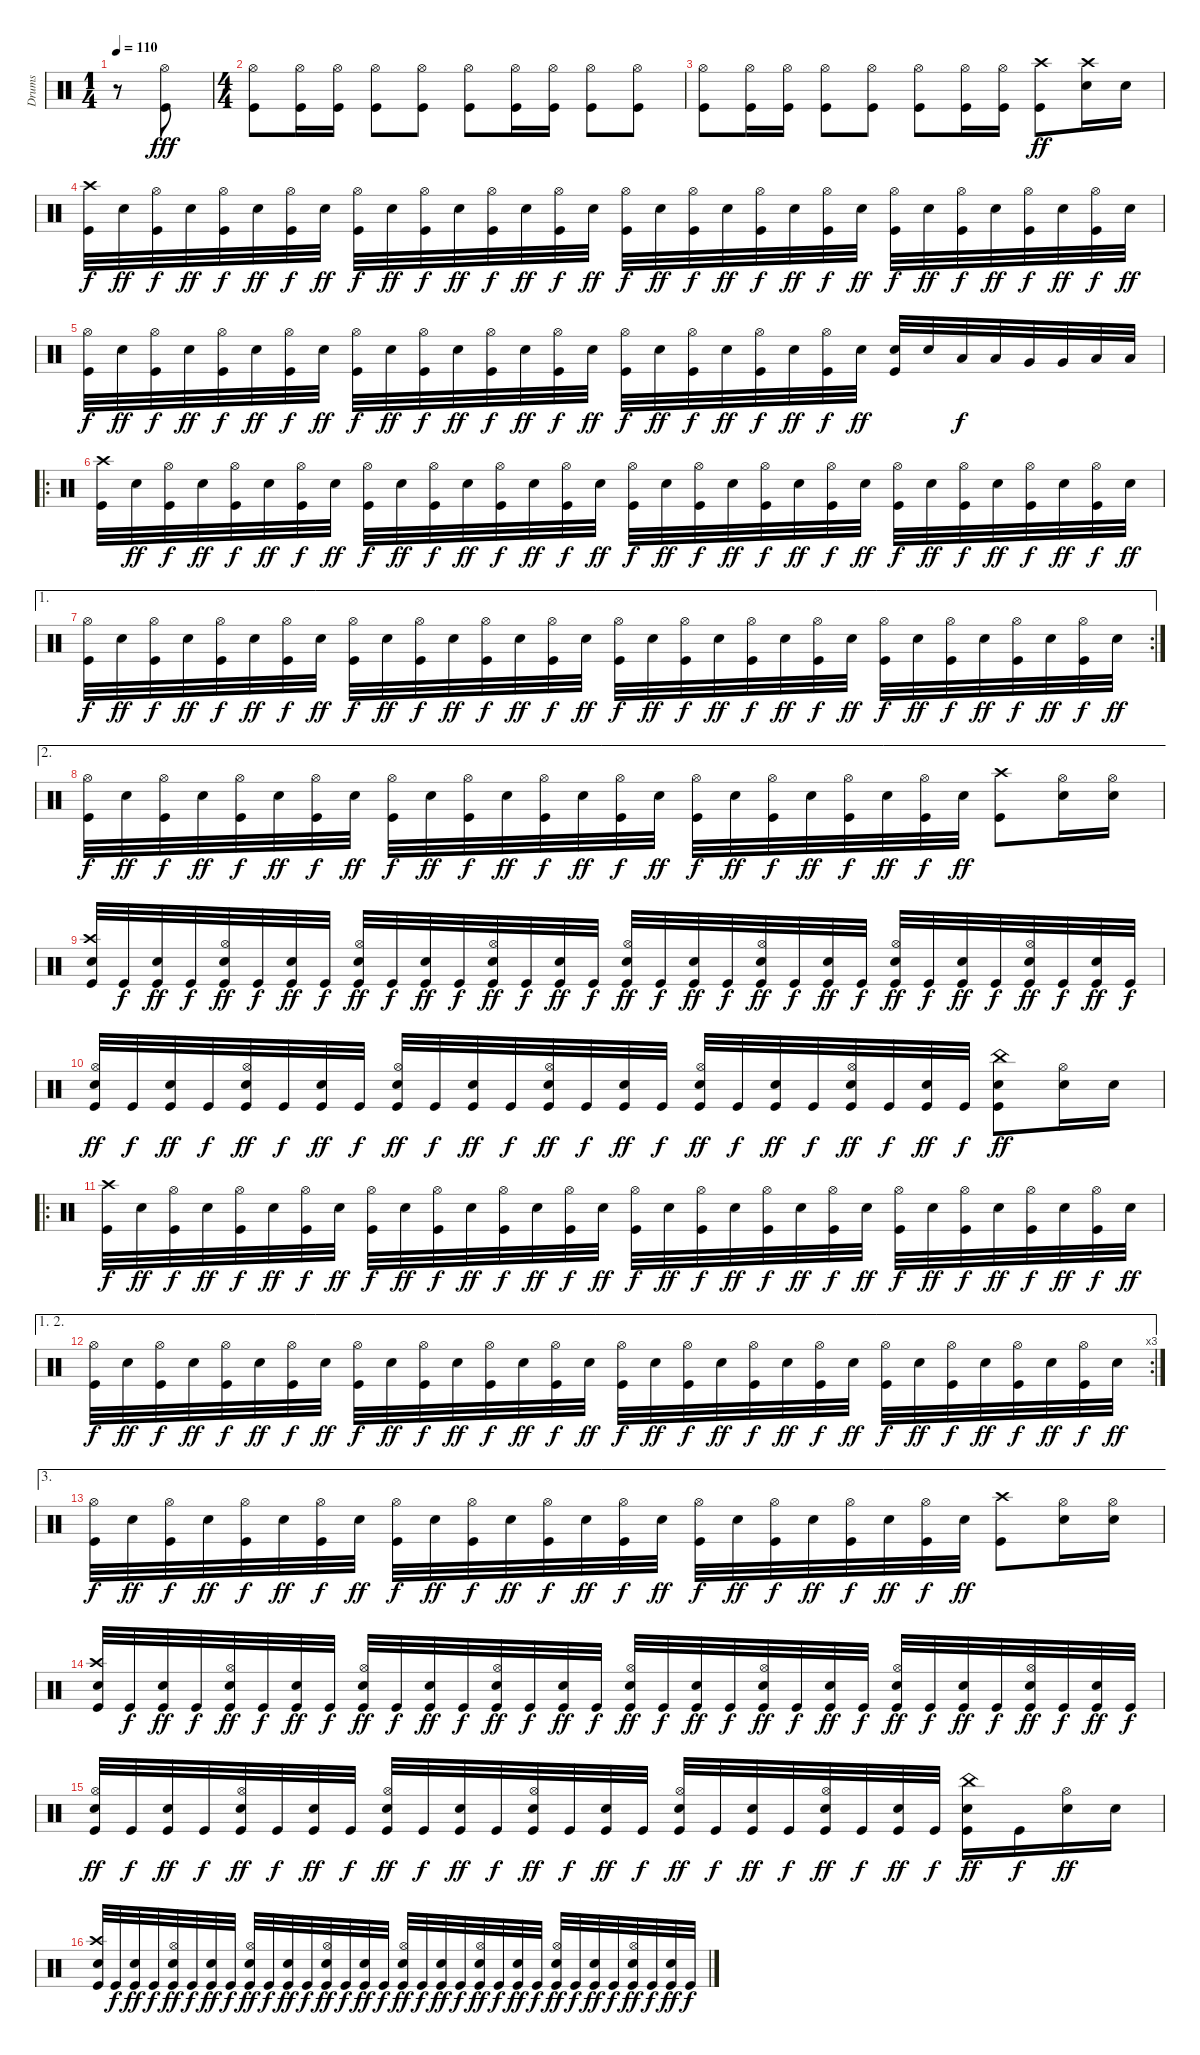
\track ("Drums" "Drums") {instrument percussion}
\staff {score}
\articulation defaults
\ts (1 4)
\tempo 110
\clef neutral
\ks c
r.8{dy fff} ("Kick (hit)" "Hi-Hat (open)").8 |
\ts (4 4)
("Kick (hit)" "Hi-Hat (open)").8 ("Kick (hit)" "Hi-Hat (open)").16 ("Kick (hit)" "Hi-Hat (open)").16 ("Kick (hit)" "Hi-Hat (open)").8 ("Kick (hit)" "Hi-Hat (open)").8 ("Kick (hit)" "Hi-Hat (open)").8 ("Kick (hit)" "Hi-Hat (open)").16 ("Kick (hit)" "Hi-Hat (open)").16 ("Kick (hit)" "Hi-Hat (open)").8 ("Kick (hit)" "Hi-Hat (open)").8 |
("Kick (hit)" "Hi-Hat (open)").8 ("Kick (hit)" "Hi-Hat (open)").16 ("Kick (hit)" "Hi-Hat (open)").16 ("Kick (hit)" "Hi-Hat (open)").8 ("Kick (hit)" "Hi-Hat (open)").8 ("Kick (hit)" "Hi-Hat (open)").8 ("Kick (hit)" "Hi-Hat (open)").16 ("Kick (hit)" "Hi-Hat (open)").16 ("Kick (hit)" "Crash high (hit)").8{dy ff} ("Electric Snare (hit)" "Crash high (hit)").16 "Electric Snare (hit)".16 |
("Kick (hit)" "Crash high (hit)").32{dy f} "Electric Snare (hit)".32{dy ff} ("Kick (hit)" "Hi-Hat (open)").32{dy f} "Electric Snare (hit)".32{dy ff} ("Kick (hit)" "Hi-Hat (open)").32{dy f} "Electric Snare (hit)".32{dy ff} ("Kick (hit)" "Hi-Hat (open)").32{dy f} "Electric Snare (hit)".32{dy ff} ("Kick (hit)" "Hi-Hat (open)").32{dy f} "Electric Snare (hit)".32{dy ff} ("Kick (hit)" "Hi-Hat (open)").32{dy f} "Electric Snare (hit)".32{dy ff} ("Kick (hit)" "Hi-Hat (open)").32{dy f} "Electric Snare (hit)".32{dy ff} ("Kick (hit)" "Hi-Hat (open)").32{dy f} "Electric Snare (hit)".32{dy ff} ("Kick (hit)" "Hi-Hat (open)").32{dy f} "Electric Snare (hit)".32{dy ff} ("Kick (hit)" "Hi-Hat (open)").32{dy f} "Electric Snare (hit)".32{dy ff} ("Kick (hit)" "Hi-Hat (open)").32{dy f} "Electric Snare (hit)".32{dy ff} ("Kick (hit)" "Hi-Hat (open)").32{dy f} "Electric Snare (hit)".32{dy ff} ("Kick (hit)" "Hi-Hat (open)").32{dy f} "Electric Snare (hit)".32{dy ff} ("Kick (hit)" "Hi-Hat (open)").32{dy f} "Electric Snare (hit)".32{dy ff} ("Kick (hit)" "Hi-Hat (open)").32{dy f} "Electric Snare (hit)".32{dy ff} ("Kick (hit)" "Hi-Hat (open)").32{dy f} "Electric Snare (hit)".32{dy ff} |
("Kick (hit)" "Hi-Hat (open)").32{dy f} "Electric Snare (hit)".32{dy ff} ("Kick (hit)" "Hi-Hat (open)").32{dy f} "Electric Snare (hit)".32{dy ff} ("Kick (hit)" "Hi-Hat (open)").32{dy f} "Electric Snare (hit)".32{dy ff} ("Kick (hit)" "Hi-Hat (open)").32{dy f} "Electric Snare (hit)".32{dy ff} ("Kick (hit)" "Hi-Hat (open)").32{dy f} "Electric Snare (hit)".32{dy ff} ("Kick (hit)" "Hi-Hat (open)").32{dy f} "Electric Snare (hit)".32{dy ff} ("Kick (hit)" "Hi-Hat (open)").32{dy f} "Electric Snare (hit)".32{dy ff} ("Kick (hit)" "Hi-Hat (open)").32{dy f} "Electric Snare (hit)".32{dy ff} ("Kick (hit)" "Hi-Hat (open)").32{dy f} "Electric Snare (hit)".32{dy ff} ("Kick (hit)" "Hi-Hat (open)").32{dy f} "Electric Snare (hit)".32{dy ff} ("Kick (hit)" "Hi-Hat (open)").32{dy f} "Electric Snare (hit)".32{dy ff} ("Kick (hit)" "Hi-Hat (open)").32{dy f} "Electric Snare (hit)".32{dy ff} ("Kick (hit)" "Electric Snare (hit)").32 "Electric Snare (hit)".32 "Low Tom (hit)".32{dy f} "Low Tom (hit)".32 "Very Low Tom (hit)".32 "Very Low Tom (hit)".32 "Low Floor Tom (hit)".32 "Low Floor Tom (hit)".32 |
\ro
("Kick (hit)" "Crash high (hit)").32 "Electric Snare (hit)".32{dy ff} ("Kick (hit)" "Hi-Hat (open)").32{dy f} "Electric Snare (hit)".32{dy ff} ("Kick (hit)" "Hi-Hat (open)").32{dy f} "Electric Snare (hit)".32{dy ff} ("Kick (hit)" "Hi-Hat (open)").32{dy f} "Electric Snare (hit)".32{dy ff} ("Kick (hit)" "Hi-Hat (open)").32{dy f} "Electric Snare (hit)".32{dy ff} ("Kick (hit)" "Hi-Hat (open)").32{dy f} "Electric Snare (hit)".32{dy ff} ("Kick (hit)" "Hi-Hat (open)").32{dy f} "Electric Snare (hit)".32{dy ff} ("Kick (hit)" "Hi-Hat (open)").32{dy f} "Electric Snare (hit)".32{dy ff} ("Kick (hit)" "Hi-Hat (open)").32{dy f} "Electric Snare (hit)".32{dy ff} ("Kick (hit)" "Hi-Hat (open)").32{dy f} "Electric Snare (hit)".32{dy ff} ("Kick (hit)" "Hi-Hat (open)").32{dy f} "Electric Snare (hit)".32{dy ff} ("Kick (hit)" "Hi-Hat (open)").32{dy f} "Electric Snare (hit)".32{dy ff} ("Kick (hit)" "Hi-Hat (open)").32{dy f} "Electric Snare (hit)".32{dy ff} ("Kick (hit)" "Hi-Hat (open)").32{dy f} "Electric Snare (hit)".32{dy ff} ("Kick (hit)" "Hi-Hat (open)").32{dy f} "Electric Snare (hit)".32{dy ff} ("Kick (hit)" "Hi-Hat (open)").32{dy f} "Electric Snare (hit)".32{dy ff} |
\ae 1
\rc 2
("Kick (hit)" "Hi-Hat (open)").32{dy f} "Electric Snare (hit)".32{dy ff} ("Kick (hit)" "Hi-Hat (open)").32{dy f} "Electric Snare (hit)".32{dy ff} ("Kick (hit)" "Hi-Hat (open)").32{dy f} "Electric Snare (hit)".32{dy ff} ("Kick (hit)" "Hi-Hat (open)").32{dy f} "Electric Snare (hit)".32{dy ff} ("Kick (hit)" "Hi-Hat (open)").32{dy f} "Electric Snare (hit)".32{dy ff} ("Kick (hit)" "Hi-Hat (open)").32{dy f} "Electric Snare (hit)".32{dy ff} ("Kick (hit)" "Hi-Hat (open)").32{dy f} "Electric Snare (hit)".32{dy ff} ("Kick (hit)" "Hi-Hat (open)").32{dy f} "Electric Snare (hit)".32{dy ff} ("Kick (hit)" "Hi-Hat (open)").32{dy f} "Electric Snare (hit)".32{dy ff} ("Kick (hit)" "Hi-Hat (open)").32{dy f} "Electric Snare (hit)".32{dy ff} ("Kick (hit)" "Hi-Hat (open)").32{dy f} "Electric Snare (hit)".32{dy ff} ("Kick (hit)" "Hi-Hat (open)").32{dy f} "Electric Snare (hit)".32{dy ff} ("Kick (hit)" "Hi-Hat (open)").32{dy f} "Electric Snare (hit)".32{dy ff} ("Kick (hit)" "Hi-Hat (open)").32{dy f} "Electric Snare (hit)".32{dy ff} ("Kick (hit)" "Hi-Hat (open)").32{dy f} "Electric Snare (hit)".32{dy ff} ("Kick (hit)" "Hi-Hat (open)").32{dy f} "Electric Snare (hit)".32{dy ff} |
\ae 2
("Kick (hit)" "Hi-Hat (open)").32{dy f} "Electric Snare (hit)".32{dy ff} ("Kick (hit)" "Hi-Hat (open)").32{dy f} "Electric Snare (hit)".32{dy ff} ("Kick (hit)" "Hi-Hat (open)").32{dy f} "Electric Snare (hit)".32{dy ff} ("Kick (hit)" "Hi-Hat (open)").32{dy f} "Electric Snare (hit)".32{dy ff} ("Kick (hit)" "Hi-Hat (open)").32{dy f} "Electric Snare (hit)".32{dy ff} ("Kick (hit)" "Hi-Hat (open)").32{dy f} "Electric Snare (hit)".32{dy ff} ("Kick (hit)" "Hi-Hat (open)").32{dy f} "Electric Snare (hit)".32{dy ff} ("Kick (hit)" "Hi-Hat (open)").32{dy f} "Electric Snare (hit)".32{dy ff} ("Kick (hit)" "Hi-Hat (open)").32{dy f} "Electric Snare (hit)".32{dy ff} ("Kick (hit)" "Hi-Hat (open)").32{dy f} "Electric Snare (hit)".32{dy ff} ("Kick (hit)" "Hi-Hat (open)").32{dy f} "Electric Snare (hit)".32{dy ff} ("Kick (hit)" "Hi-Hat (open)").32{dy f} "Electric Snare (hit)".32{dy ff} ("Kick (hit)" "Crash high (hit)").8 ("Electric Snare (hit)" "Hi-Hat (open)").16 ("Electric Snare (hit)" "Hi-Hat (open)").16 |
("Kick (hit)" "Electric Snare (hit)" "Crash high (hit)").32 "Kick (hit)".32{dy f} ("Kick (hit)" "Electric Snare (hit)").32{dy ff} "Kick (hit)".32{dy f} ("Kick (hit)" "Electric Snare (hit)" "Hi-Hat (open)").32{dy ff} "Kick (hit)".32{dy f} ("Kick (hit)" "Electric Snare (hit)").32{dy ff} "Kick (hit)".32{dy f} ("Kick (hit)" "Electric Snare (hit)" "Hi-Hat (open)").32{dy ff} "Kick (hit)".32{dy f} ("Kick (hit)" "Electric Snare (hit)").32{dy ff} "Kick (hit)".32{dy f} ("Kick (hit)" "Electric Snare (hit)" "Hi-Hat (open)").32{dy ff} "Kick (hit)".32{dy f} ("Kick (hit)" "Electric Snare (hit)").32{dy ff} "Kick (hit)".32{dy f} ("Kick (hit)" "Electric Snare (hit)" "Hi-Hat (open)").32{dy ff} "Kick (hit)".32{dy f} ("Kick (hit)" "Electric Snare (hit)").32{dy ff} "Kick (hit)".32{dy f} ("Kick (hit)" "Electric Snare (hit)" "Hi-Hat (open)").32{dy ff} "Kick (hit)".32{dy f} ("Kick (hit)" "Electric Snare (hit)").32{dy ff} "Kick (hit)".32{dy f} ("Kick (hit)" "Electric Snare (hit)" "Hi-Hat (open)").32{dy ff} "Kick (hit)".32{dy f} ("Kick (hit)" "Electric Snare (hit)").32{dy ff} "Kick (hit)".32{dy f} ("Kick (hit)" "Electric Snare (hit)" "Hi-Hat (open)").32{dy ff} "Kick (hit)".32{dy f} ("Kick (hit)" "Electric Snare (hit)").32{dy ff} "Kick (hit)".32{dy f} |
("Kick (hit)" "Electric Snare (hit)" "Hi-Hat (open)").32{dy ff} "Kick (hit)".32{dy f} ("Kick (hit)" "Electric Snare (hit)").32{dy ff} "Kick (hit)".32{dy f} ("Kick (hit)" "Electric Snare (hit)" "Hi-Hat (open)").32{dy ff} "Kick (hit)".32{dy f} ("Kick (hit)" "Electric Snare (hit)").32{dy ff} "Kick (hit)".32{dy f} ("Kick (hit)" "Electric Snare (hit)" "Hi-Hat (open)").32{dy ff} "Kick (hit)".32{dy f} ("Kick (hit)" "Electric Snare (hit)").32{dy ff} "Kick (hit)".32{dy f} ("Kick (hit)" "Electric Snare (hit)" "Hi-Hat (open)").32{dy ff} "Kick (hit)".32{dy f} ("Kick (hit)" "Electric Snare (hit)").32{dy ff} "Kick (hit)".32{dy f} ("Kick (hit)" "Electric Snare (hit)" "Hi-Hat (open)").32{dy ff} "Kick (hit)".32{dy f} ("Kick (hit)" "Electric Snare (hit)").32{dy ff} "Kick (hit)".32{dy f} ("Kick (hit)" "Electric Snare (hit)" "Hi-Hat (open)").32{dy ff} "Kick (hit)".32{dy f} ("Kick (hit)" "Electric Snare (hit)").32{dy ff} "Kick (hit)".32{dy f} ("Kick (hit)" "Electric Snare (hit)" "China (hit)").8{dy ff} ("Electric Snare (hit)" "Hi-Hat (open)").16 "Electric Snare (hit)".16 |
\ro
("Kick (hit)" "Crash high (hit)").32{dy f} "Electric Snare (hit)".32{dy ff} ("Kick (hit)" "Hi-Hat (open)").32{dy f} "Electric Snare (hit)".32{dy ff} ("Kick (hit)" "Hi-Hat (open)").32{dy f} "Electric Snare (hit)".32{dy ff} ("Kick (hit)" "Hi-Hat (open)").32{dy f} "Electric Snare (hit)".32{dy ff} ("Kick (hit)" "Hi-Hat (open)").32{dy f} "Electric Snare (hit)".32{dy ff} ("Kick (hit)" "Hi-Hat (open)").32{dy f} "Electric Snare (hit)".32{dy ff} ("Kick (hit)" "Hi-Hat (open)").32{dy f} "Electric Snare (hit)".32{dy ff} ("Kick (hit)" "Hi-Hat (open)").32{dy f} "Electric Snare (hit)".32{dy ff} ("Kick (hit)" "Hi-Hat (open)").32{dy f} "Electric Snare (hit)".32{dy ff} ("Kick (hit)" "Hi-Hat (open)").32{dy f} "Electric Snare (hit)".32{dy ff} ("Kick (hit)" "Hi-Hat (open)").32{dy f} "Electric Snare (hit)".32{dy ff} ("Kick (hit)" "Hi-Hat (open)").32{dy f} "Electric Snare (hit)".32{dy ff} ("Kick (hit)" "Hi-Hat (open)").32{dy f} "Electric Snare (hit)".32{dy ff} ("Kick (hit)" "Hi-Hat (open)").32{dy f} "Electric Snare (hit)".32{dy ff} ("Kick (hit)" "Hi-Hat (open)").32{dy f} "Electric Snare (hit)".32{dy ff} ("Kick (hit)" "Hi-Hat (open)").32{dy f} "Electric Snare (hit)".32{dy ff} |
\ae (1 2)
\rc 3
("Kick (hit)" "Hi-Hat (open)").32{dy f} "Electric Snare (hit)".32{dy ff} ("Kick (hit)" "Hi-Hat (open)").32{dy f} "Electric Snare (hit)".32{dy ff} ("Kick (hit)" "Hi-Hat (open)").32{dy f} "Electric Snare (hit)".32{dy ff} ("Kick (hit)" "Hi-Hat (open)").32{dy f} "Electric Snare (hit)".32{dy ff} ("Kick (hit)" "Hi-Hat (open)").32{dy f} "Electric Snare (hit)".32{dy ff} ("Kick (hit)" "Hi-Hat (open)").32{dy f} "Electric Snare (hit)".32{dy ff} ("Kick (hit)" "Hi-Hat (open)").32{dy f} "Electric Snare (hit)".32{dy ff} ("Kick (hit)" "Hi-Hat (open)").32{dy f} "Electric Snare (hit)".32{dy ff} ("Kick (hit)" "Hi-Hat (open)").32{dy f} "Electric Snare (hit)".32{dy ff} ("Kick (hit)" "Hi-Hat (open)").32{dy f} "Electric Snare (hit)".32{dy ff} ("Kick (hit)" "Hi-Hat (open)").32{dy f} "Electric Snare (hit)".32{dy ff} ("Kick (hit)" "Hi-Hat (open)").32{dy f} "Electric Snare (hit)".32{dy ff} ("Kick (hit)" "Hi-Hat (open)").32{dy f} "Electric Snare (hit)".32{dy ff} ("Kick (hit)" "Hi-Hat (open)").32{dy f} "Electric Snare (hit)".32{dy ff} ("Kick (hit)" "Hi-Hat (open)").32{dy f} "Electric Snare (hit)".32{dy ff} ("Kick (hit)" "Hi-Hat (open)").32{dy f} "Electric Snare (hit)".32{dy ff} |
\ae 3
("Kick (hit)" "Hi-Hat (open)").32{dy f} "Electric Snare (hit)".32{dy ff} ("Kick (hit)" "Hi-Hat (open)").32{dy f} "Electric Snare (hit)".32{dy ff} ("Kick (hit)" "Hi-Hat (open)").32{dy f} "Electric Snare (hit)".32{dy ff} ("Kick (hit)" "Hi-Hat (open)").32{dy f} "Electric Snare (hit)".32{dy ff} ("Kick (hit)" "Hi-Hat (open)").32{dy f} "Electric Snare (hit)".32{dy ff} ("Kick (hit)" "Hi-Hat (open)").32{dy f} "Electric Snare (hit)".32{dy ff} ("Kick (hit)" "Hi-Hat (open)").32{dy f} "Electric Snare (hit)".32{dy ff} ("Kick (hit)" "Hi-Hat (open)").32{dy f} "Electric Snare (hit)".32{dy ff} ("Kick (hit)" "Hi-Hat (open)").32{dy f} "Electric Snare (hit)".32{dy ff} ("Kick (hit)" "Hi-Hat (open)").32{dy f} "Electric Snare (hit)".32{dy ff} ("Kick (hit)" "Hi-Hat (open)").32{dy f} "Electric Snare (hit)".32{dy ff} ("Kick (hit)" "Hi-Hat (open)").32{dy f} "Electric Snare (hit)".32{dy ff} ("Kick (hit)" "Crash high (hit)").8 ("Electric Snare (hit)" "Hi-Hat (open)").16 ("Electric Snare (hit)" "Hi-Hat (open)").16 |
("Kick (hit)" "Electric Snare (hit)" "Crash high (hit)").32 "Kick (hit)".32{dy f} ("Kick (hit)" "Electric Snare (hit)").32{dy ff} "Kick (hit)".32{dy f} ("Kick (hit)" "Electric Snare (hit)" "Hi-Hat (open)").32{dy ff} "Kick (hit)".32{dy f} ("Kick (hit)" "Electric Snare (hit)").32{dy ff} "Kick (hit)".32{dy f} ("Kick (hit)" "Electric Snare (hit)" "Hi-Hat (open)").32{dy ff} "Kick (hit)".32{dy f} ("Kick (hit)" "Electric Snare (hit)").32{dy ff} "Kick (hit)".32{dy f} ("Kick (hit)" "Electric Snare (hit)" "Hi-Hat (open)").32{dy ff} "Kick (hit)".32{dy f} ("Kick (hit)" "Electric Snare (hit)").32{dy ff} "Kick (hit)".32{dy f} ("Kick (hit)" "Electric Snare (hit)" "Hi-Hat (open)").32{dy ff} "Kick (hit)".32{dy f} ("Kick (hit)" "Electric Snare (hit)").32{dy ff} "Kick (hit)".32{dy f} ("Kick (hit)" "Electric Snare (hit)" "Hi-Hat (open)").32{dy ff} "Kick (hit)".32{dy f} ("Kick (hit)" "Electric Snare (hit)").32{dy ff} "Kick (hit)".32{dy f} ("Kick (hit)" "Electric Snare (hit)" "Hi-Hat (open)").32{dy ff} "Kick (hit)".32{dy f} ("Kick (hit)" "Electric Snare (hit)").32{dy ff} "Kick (hit)".32{dy f} ("Kick (hit)" "Electric Snare (hit)" "Hi-Hat (open)").32{dy ff} "Kick (hit)".32{dy f} ("Kick (hit)" "Electric Snare (hit)").32{dy ff} "Kick (hit)".32{dy f} |
("Kick (hit)" "Electric Snare (hit)" "Hi-Hat (open)").32{dy ff} "Kick (hit)".32{dy f} ("Kick (hit)" "Electric Snare (hit)").32{dy ff} "Kick (hit)".32{dy f} ("Kick (hit)" "Electric Snare (hit)" "Hi-Hat (open)").32{dy ff} "Kick (hit)".32{dy f} ("Kick (hit)" "Electric Snare (hit)").32{dy ff} "Kick (hit)".32{dy f} ("Kick (hit)" "Electric Snare (hit)" "Hi-Hat (open)").32{dy ff} "Kick (hit)".32{dy f} ("Kick (hit)" "Electric Snare (hit)").32{dy ff} "Kick (hit)".32{dy f} ("Kick (hit)" "Electric Snare (hit)" "Hi-Hat (open)").32{dy ff} "Kick (hit)".32{dy f} ("Kick (hit)" "Electric Snare (hit)").32{dy ff} "Kick (hit)".32{dy f} ("Kick (hit)" "Electric Snare (hit)" "Hi-Hat (open)").32{dy ff} "Kick (hit)".32{dy f} ("Kick (hit)" "Electric Snare (hit)").32{dy ff} "Kick (hit)".32{dy f} ("Kick (hit)" "Electric Snare (hit)" "Hi-Hat (open)").32{dy ff} "Kick (hit)".32{dy f} ("Kick (hit)" "Electric Snare (hit)").32{dy ff} "Kick (hit)".32{dy f} ("Kick (hit)" "Electric Snare (hit)" "China (hit)").16{dy ff} "Kick (hit)".16{dy f} ("Electric Snare (hit)" "Hi-Hat (open)").16{dy ff} "Electric Snare (hit)".16 |
("Kick (hit)" "Electric Snare (hit)" "Crash high (hit)").32 "Kick (hit)".32{dy f} ("Kick (hit)" "Electric Snare (hit)").32{dy ff} "Kick (hit)".32{dy f} ("Kick (hit)" "Electric Snare (hit)" "Hi-Hat (open)").32{dy ff} "Kick (hit)".32{dy f} ("Kick (hit)" "Electric Snare (hit)").32{dy ff} "Kick (hit)".32{dy f} ("Kick (hit)" "Electric Snare (hit)" "Hi-Hat (open)").32{dy ff} "Kick (hit)".32{dy f} ("Kick (hit)" "Electric Snare (hit)").32{dy ff} "Kick (hit)".32{dy f} ("Kick (hit)" "Electric Snare (hit)" "Hi-Hat (open)").32{dy ff} "Kick (hit)".32{dy f} ("Kick (hit)" "Electric Snare (hit)").32{dy ff} "Kick (hit)".32{dy f} ("Kick (hit)" "Electric Snare (hit)" "Hi-Hat (open)").32{dy ff} "Kick (hit)".32{dy f} ("Kick (hit)" "Electric Snare (hit)").32{dy ff} "Kick (hit)".32{dy f} ("Kick (hit)" "Electric Snare (hit)" "Hi-Hat (open)").32{dy ff} "Kick (hit)".32{dy f} ("Kick (hit)" "Electric Snare (hit)").32{dy ff} "Kick (hit)".32{dy f} ("Kick (hit)" "Electric Snare (hit)" "Hi-Hat (open)").32{dy ff} "Kick (hit)".32{dy f} ("Kick (hit)" "Electric Snare (hit)").32{dy ff} "Kick (hit)".32{dy f} ("Kick (hit)" "Electric Snare (hit)" "Hi-Hat (open)").32{dy ff} "Kick (hit)".32{dy f} ("Kick (hit)" "Electric Snare (hit)").32{dy ff} "Kick (hit)".32{dy f}
